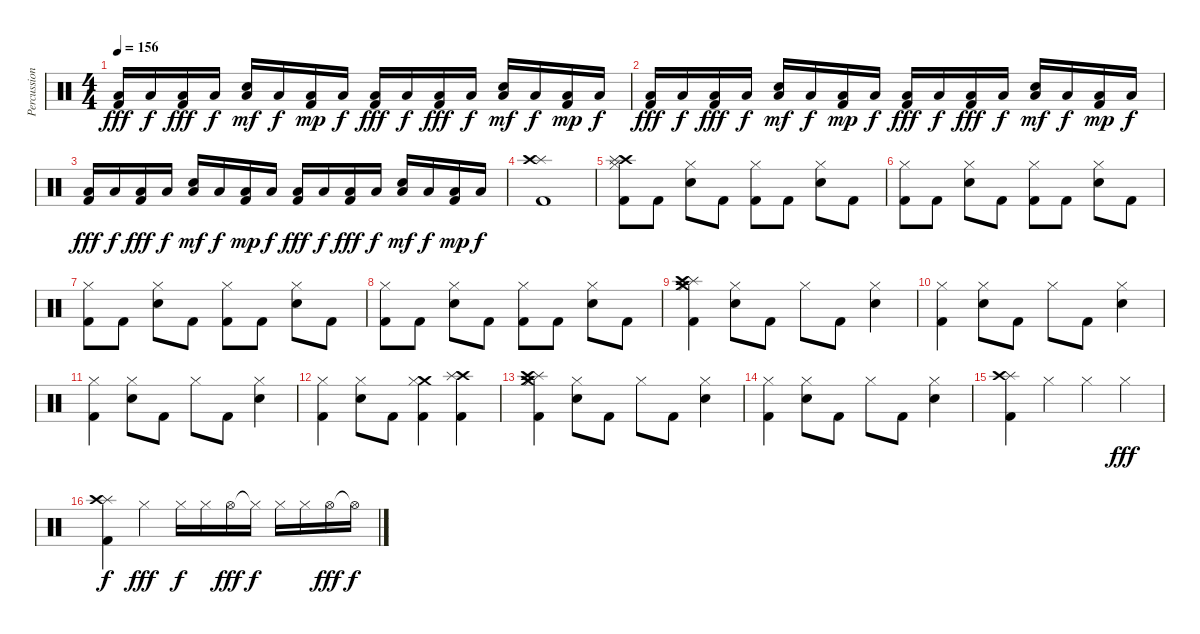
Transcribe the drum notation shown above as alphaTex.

\track ("Percussion" "Percussion") {instrument percussion}
\staff {score}
\articulation defaults
\ts (4 4)
\tempo 156
\clef neutral
\ks c
("Low Floor Tom (hit)" "Kick (hit) 2").16{dy fff} "Low Floor Tom (hit)".16{dy f} ("Low Floor Tom (hit)" "Kick (hit) 2").16{dy fff} "Low Floor Tom (hit)".16{dy f} ("Low Floor Tom (hit)" "Electric Snare (hit)").16{dy mf} "Low Floor Tom (hit)".16{dy f} ("Low Floor Tom (hit)" "Kick (hit) 2").16{dy mp} "Low Floor Tom (hit)".16{dy f} ("Low Floor Tom (hit)" "Kick (hit) 2").16{dy fff} "Low Floor Tom (hit)".16{dy f} ("Low Floor Tom (hit)" "Kick (hit) 2").16{dy fff} "Low Floor Tom (hit)".16{dy f} ("Low Floor Tom (hit)" "Electric Snare (hit)").16{dy mf} "Low Floor Tom (hit)".16{dy f} ("Low Floor Tom (hit)" "Kick (hit) 2").16{dy mp} "Low Floor Tom (hit)".16{dy f} |
("Low Floor Tom (hit)" "Kick (hit) 2").16{dy fff} "Low Floor Tom (hit)".16{dy f} ("Low Floor Tom (hit)" "Kick (hit) 2").16{dy fff} "Low Floor Tom (hit)".16{dy f} ("Low Floor Tom (hit)" "Electric Snare (hit)").16{dy mf} "Low Floor Tom (hit)".16{dy f} ("Low Floor Tom (hit)" "Kick (hit) 2").16{dy mp} "Low Floor Tom (hit)".16{dy f} ("Low Floor Tom (hit)" "Kick (hit) 2").16{dy fff} "Low Floor Tom (hit)".16{dy f} ("Low Floor Tom (hit)" "Kick (hit) 2").16{dy fff} "Low Floor Tom (hit)".16{dy f} ("Low Floor Tom (hit)" "Electric Snare (hit)").16{dy mf} "Low Floor Tom (hit)".16{dy f} ("Low Floor Tom (hit)" "Kick (hit) 2").16{dy mp} "Low Floor Tom (hit)".16{dy f} |
("Low Floor Tom (hit)" "Kick (hit) 2").16{dy fff} "Low Floor Tom (hit)".16{dy f} ("Low Floor Tom (hit)" "Kick (hit) 2").16{dy fff} "Low Floor Tom (hit)".16{dy f} ("Low Floor Tom (hit)" "Electric Snare (hit)").16{dy mf} "Low Floor Tom (hit)".16{dy f} ("Low Floor Tom (hit)" "Kick (hit) 2").16{dy mp} "Low Floor Tom (hit)".16{dy f} ("Low Floor Tom (hit)" "Kick (hit) 2").16{dy fff} "Low Floor Tom (hit)".16{dy f} ("Low Floor Tom (hit)" "Kick (hit) 2").16{dy fff} "Low Floor Tom (hit)".16{dy f} ("Low Floor Tom (hit)" "Electric Snare (hit)").16{dy mf} "Low Floor Tom (hit)".16{dy f} ("Low Floor Tom (hit)" "Kick (hit) 2").16{dy mp} "Low Floor Tom (hit)".16{dy f} |
("Splash (hit)" "Crash high (hit)" "Kick (hit) 2").1 |
("Crash high (hit)" "Splash (hit)" "Hi-Hat (closed)" "Kick (hit) 2").8 "Kick (hit) 2".8 ("Hi-Hat (closed)" "Electric Snare (hit)").8 "Kick (hit) 2".8 ("Hi-Hat (closed)" "Kick (hit) 2").8 "Kick (hit) 2".8 ("Hi-Hat (closed)" "Electric Snare (hit)").8 "Kick (hit) 2".8 |
("Hi-Hat (closed)" "Kick (hit) 2").8 "Kick (hit) 2".8 ("Hi-Hat (closed)" "Electric Snare (hit)").8 "Kick (hit) 2".8 ("Hi-Hat (closed)" "Kick (hit) 2").8 "Kick (hit) 2".8 ("Hi-Hat (closed)" "Electric Snare (hit)").8 "Kick (hit) 2".8 |
("Hi-Hat (closed)" "Kick (hit) 2").8 "Kick (hit) 2".8 ("Hi-Hat (closed)" "Electric Snare (hit)").8 "Kick (hit) 2".8 ("Hi-Hat (closed)" "Kick (hit) 2").8 "Kick (hit) 2".8 ("Hi-Hat (closed)" "Electric Snare (hit)").8 "Kick (hit) 2".8 |
("Hi-Hat (closed)" "Kick (hit) 2").8 "Kick (hit) 2".8 ("Hi-Hat (closed)" "Electric Snare (hit)").8 "Kick (hit) 2".8 ("Hi-Hat (closed)" "Kick (hit) 2").8 "Kick (hit) 2".8 ("Hi-Hat (closed)" "Electric Snare (hit)").8 "Kick (hit) 2".8 |
("Crash medium (hit)" "Splash (hit)" "Hi-Hat (closed)" "Kick (hit) 2" "Crash high (hit)").4 ("Hi-Hat (closed)" "Electric Snare (hit)").8 "Kick (hit) 2".8 "Hi-Hat (closed)".8 "Kick (hit) 2".8 ("Hi-Hat (closed)" "Electric Snare (hit)").4 |
("Hi-Hat (closed)" "Kick (hit) 2").4 ("Hi-Hat (closed)" "Electric Snare (hit)").8 "Kick (hit) 2".8 "Hi-Hat (closed)".8 "Kick (hit) 2".8 ("Hi-Hat (closed)" "Electric Snare (hit)").4 |
("Hi-Hat (closed)" "Kick (hit) 2").4 ("Hi-Hat (closed)" "Electric Snare (hit)").8 "Kick (hit) 2".8 "Hi-Hat (closed)".8 "Kick (hit) 2".8 ("Hi-Hat (closed)" "Electric Snare (hit)").4 |
("Hi-Hat (closed)" "Kick (hit) 2").4 ("Hi-Hat (closed)" "Electric Snare (hit)").8 "Kick (hit) 2".8 ("Crash medium (hit)" "Hi-Hat (closed)" "Kick (hit) 2").4 ("Crash high (hit)" "Splash (hit)" "Kick (hit) 2").4 |
("Splash (hit)" "Crash medium (hit)" "Hi-Hat (closed)" "Kick (hit) 2" "Crash high (hit)").4 ("Hi-Hat (closed)" "Electric Snare (hit)").8 "Kick (hit) 2".8 "Hi-Hat (closed)".8 "Kick (hit) 2".8 ("Hi-Hat (closed)" "Electric Snare (hit)").4 |
("Hi-Hat (closed)" "Kick (hit) 2").4 ("Hi-Hat (closed)" "Electric Snare (hit)").8 "Kick (hit) 2".8 "Hi-Hat (closed)".8 "Kick (hit) 2".8 ("Hi-Hat (closed)" "Electric Snare (hit)").4 |
("Splash (hit)" "Crash high (hit)" "Kick (hit) 2").4 "Hi-Hat (closed)".4 "Hi-Hat (closed)".4 "Hi-Hat (closed)".4{dy fff} |
("Splash (hit)" "Crash high (hit)" "Kick (hit) 2").4{dy f} "Hi-Hat (closed)".4{dy fff} "Hi-Hat (closed)".16{dy f} "Hi-Hat (closed)".16 "Hi-Hat (open)".16{dy fff} "Hi-Hat (closed)"{t}.16{dy f} "Hi-Hat (closed)".16 "Hi-Hat (closed)".16 "Hi-Hat (open)".16{dy fff} "Hi-Hat (open)"{t}.16{dy f}
